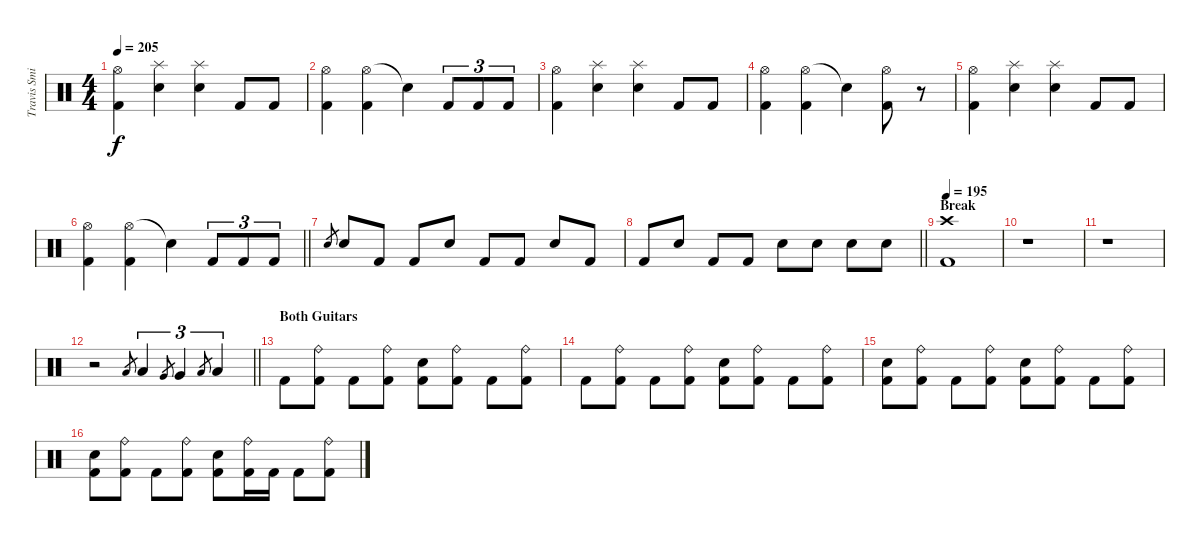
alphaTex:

\track ("Travis Smith" "Travis Smi") {instrument percussion}
\staff {score}
\articulation defaults
\ts (4 4)
\tempo 205
\clef neutral
\ks c
("Hi-Hat (open)" "Kick (hit) 2").4{dy f} ("Splash (hit)" "Snare (hit) 2").4 ("Splash (hit)" "Snare (hit) 2").4 "Kick (hit) 2".8 "Kick (hit) 2".8 |
("Hi-Hat (open)" "Kick (hit) 2").4 ("Hi-Hat (open)" "Kick (hit) 2").4 "Snare (hit)"{t}.4 "Kick (hit) 2".8{tu (3 2)} "Kick (hit) 2".8{tu (3 2)} "Kick (hit) 2".8{tu (3 2)} |
("Hi-Hat (open)" "Kick (hit) 2").4 ("Splash (hit)" "Snare (hit) 2").4 ("Splash (hit)" "Snare (hit) 2").4 "Kick (hit) 2".8 "Kick (hit) 2".8 |
("Hi-Hat (open)" "Kick (hit) 2").4 ("Hi-Hat (open)" "Kick (hit) 2").4 "Snare (hit)"{t}.4 ("Hi-Hat (open)" "Kick (hit) 2").8 r.8 |
("Hi-Hat (open)" "Kick (hit) 2").4 ("Splash (hit)" "Snare (hit) 2").4 ("Splash (hit)" "Snare (hit) 2").4 "Kick (hit) 2".8 "Kick (hit) 2".8 |
\barLineRight lightlight
("Hi-Hat (open)" "Kick (hit) 2").4 ("Hi-Hat (open)" "Kick (hit) 2").4 "Snare (hit)"{t}.4 "Kick (hit) 2".8{tu (3 2)} "Kick (hit) 2".8{tu (3 2)} "Kick (hit) 2".8{tu (3 2)} |
\section ("" "")
"Snare (hit) 2".8{gr} "Snare (hit) 2".8 "Kick (hit) 2".8 "Kick (hit) 2".8 "Snare (hit) 2".8 "Kick (hit) 2".8 "Kick (hit) 2".8 "Snare (hit) 2".8 "Kick (hit) 2".8 |
\barLineRight lightlight "Kick (hit) 2".8 "Snare (hit) 2".8 "Kick (hit) 2".8 "Kick (hit) 2".8 "Snare (hit) 2".8 "Snare (hit) 2".8 "Snare (hit) 2".8 "Snare (hit) 2".8
|
\section ("" "Break")
\tempo 195
("Crash high (hit)" "Kick (hit) 2").1 |
r.1 |
r.1 |
\barLineRight lightlight
r.2 "Low Tom (hit)".8{gr} "Low Tom (hit)".4{tu (3 2)} "Very Low Tom (hit)".8{gr} "Very Low Tom (hit)".4{tu (3 2)} "Low Floor Tom (hit)".8{gr} "Low Floor Tom (hit)".4{tu (3 2)} |
\section ("" "Both Guitars")
"Kick (hit) 2".8 ("Ride (bell)" "Kick (hit) 2").8 "Kick (hit) 2".8 ("Ride (bell)" "Kick (hit) 2").8 ("Snare (hit) 2" "Kick (hit) 2").8 ("Ride (bell)" "Kick (hit) 2").8 "Kick (hit) 2".8 ("Ride (bell)" "Kick (hit) 2").8 |
"Kick (hit) 2".8 ("Ride (bell)" "Kick (hit) 2").8 "Kick (hit) 2".8 ("Ride (bell)" "Kick (hit) 2").8 ("Snare (hit) 2" "Kick (hit) 2").8 ("Ride (bell)" "Kick (hit) 2").8 "Kick (hit) 2".8 ("Ride (bell)" "Kick (hit) 2").8 |
("Snare (hit) 2" "Kick (hit) 2").8 ("Ride (bell)" "Kick (hit) 2").8 "Kick (hit) 2".8 ("Ride (bell)" "Kick (hit) 2").8 ("Snare (hit) 2" "Kick (hit) 2").8 ("Ride (bell)" "Kick (hit) 2").8 "Kick (hit) 2".8 ("Ride (bell)" "Kick (hit) 2").8 |
("Snare (hit) 2" "Kick (hit) 2").8 ("Ride (bell)" "Kick (hit) 2").8 "Kick (hit) 2".8 ("Ride (bell)" "Kick (hit) 2").8 ("Snare (hit) 2" "Kick (hit) 2").8 ("Ride (bell)" "Kick (hit) 2").16 "Kick (hit) 2".16 "Kick (hit) 2".8 ("Ride (bell)" "Kick (hit) 2").8
